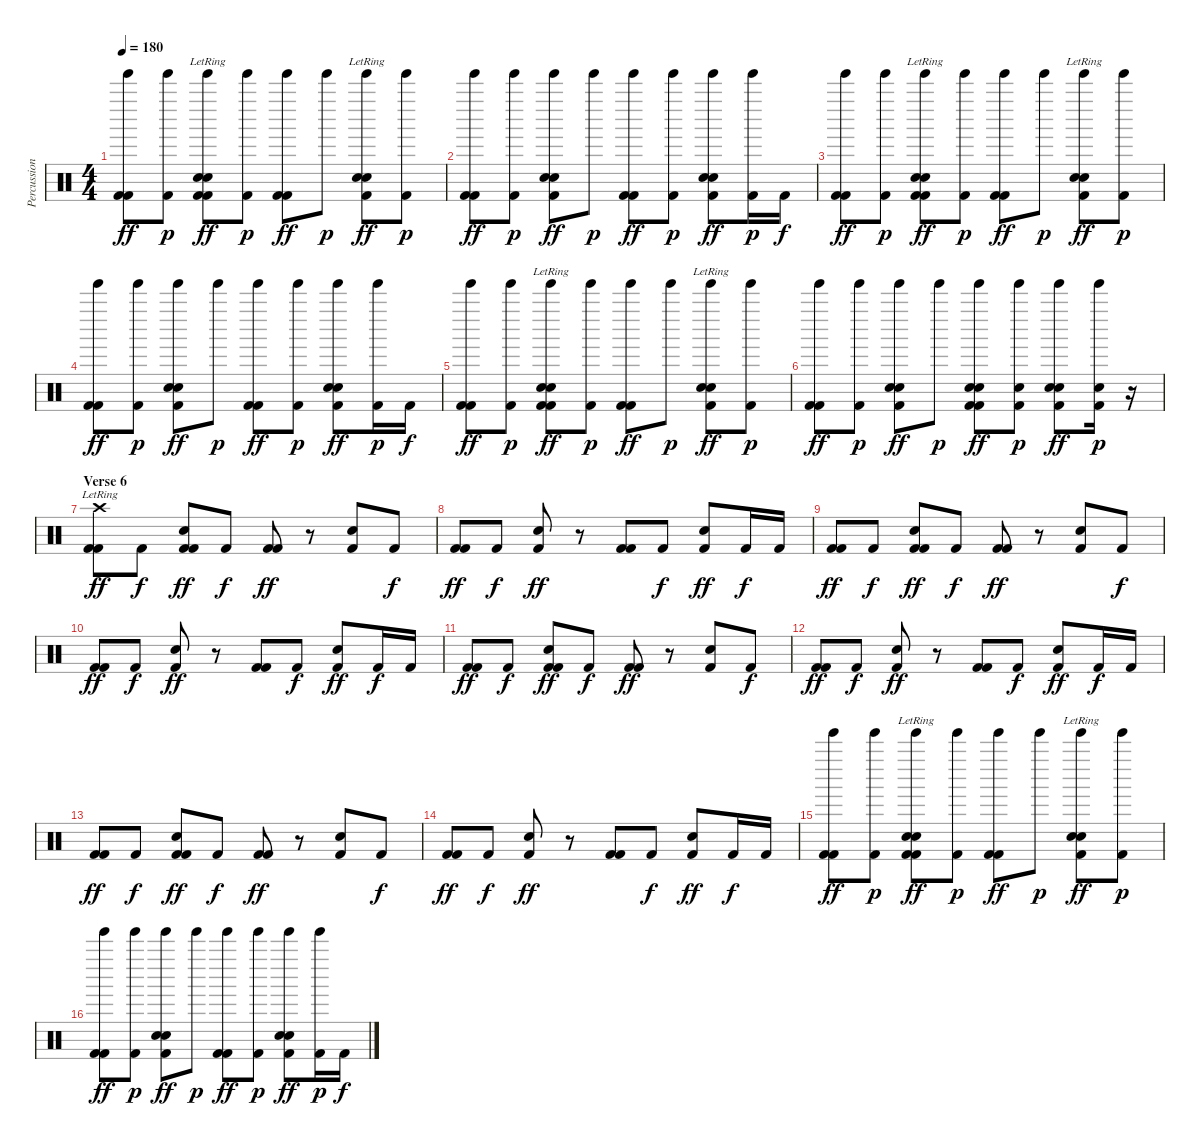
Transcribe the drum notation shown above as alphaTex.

\track ("Percussion" "Percussion") {instrument percussion}
\staff {score}
\articulation defaults
\ts (4 4)
\tempo 180
\clef neutral
\ks c
("Tinkle Bell (hit)" "Kick (hit) 2" "Kick (hit) 2").8{dy ff} ("Tinkle Bell (hit)" "Kick (hit) 2").8{dy p} ("Tinkle Bell (hit)" "Snare (hit) 2"{lr} "Electric Snare (hit)" "Kick (hit) 2" "Kick (hit) 2").8{dy ff} ("Tinkle Bell (hit)" "Kick (hit) 2").8{dy p} ("Tinkle Bell (hit)" "Kick (hit) 2" "Kick (hit) 2").8{dy ff} "Tinkle Bell (hit)".8{dy p} ("Tinkle Bell (hit)" "Snare (hit) 2"{lr} "Electric Snare (hit)" "Kick (hit) 2").8{dy ff} ("Tinkle Bell (hit)" "Kick (hit) 2").8{dy p} |
("Tinkle Bell (hit)" "Kick (hit) 2" "Kick (hit) 2").8{dy ff} ("Tinkle Bell (hit)" "Kick (hit) 2").8{dy p} ("Tinkle Bell (hit)" "Snare (hit) 2" "Electric Snare (hit)" "Kick (hit) 2").8{dy ff} "Tinkle Bell (hit)".8{dy p} ("Tinkle Bell (hit)" "Kick (hit) 2" "Kick (hit) 2").8{dy ff} ("Tinkle Bell (hit)" "Kick (hit) 2").8{dy p} ("Tinkle Bell (hit)" "Snare (hit) 2" "Electric Snare (hit)" "Kick (hit) 2").8{dy ff} ("Tinkle Bell (hit)" "Kick (hit) 2").16{dy p} "Kick (hit) 2".16{dy f} |
("Tinkle Bell (hit)" "Kick (hit) 2" "Kick (hit) 2").8{dy ff} ("Tinkle Bell (hit)" "Kick (hit) 2").8{dy p} ("Tinkle Bell (hit)" "Snare (hit) 2"{lr} "Electric Snare (hit)" "Kick (hit) 2" "Kick (hit) 2").8{dy ff} ("Tinkle Bell (hit)" "Kick (hit) 2").8{dy p} ("Tinkle Bell (hit)" "Kick (hit) 2" "Kick (hit) 2").8{dy ff} "Tinkle Bell (hit)".8{dy p} ("Tinkle Bell (hit)" "Snare (hit) 2"{lr} "Electric Snare (hit)" "Kick (hit) 2").8{dy ff} ("Tinkle Bell (hit)" "Kick (hit) 2").8{dy p} |
("Tinkle Bell (hit)" "Kick (hit) 2" "Kick (hit) 2").8{dy ff} ("Tinkle Bell (hit)" "Kick (hit) 2").8{dy p} ("Tinkle Bell (hit)" "Snare (hit) 2" "Electric Snare (hit)" "Kick (hit) 2").8{dy ff} "Tinkle Bell (hit)".8{dy p} ("Tinkle Bell (hit)" "Kick (hit) 2" "Kick (hit) 2").8{dy ff} ("Tinkle Bell (hit)" "Kick (hit) 2").8{dy p} ("Tinkle Bell (hit)" "Snare (hit) 2" "Electric Snare (hit)" "Kick (hit) 2").8{dy ff} ("Tinkle Bell (hit)" "Kick (hit) 2").16{dy p} "Kick (hit) 2".16{dy f} |
("Tinkle Bell (hit)" "Kick (hit) 2" "Kick (hit) 2").8{dy ff} ("Tinkle Bell (hit)" "Kick (hit) 2").8{dy p} ("Tinkle Bell (hit)" "Snare (hit) 2"{lr} "Electric Snare (hit)" "Kick (hit) 2" "Kick (hit) 2").8{dy ff} ("Tinkle Bell (hit)" "Kick (hit) 2").8{dy p} ("Tinkle Bell (hit)" "Kick (hit) 2" "Kick (hit) 2").8{dy ff} "Tinkle Bell (hit)".8{dy p} ("Tinkle Bell (hit)" "Snare (hit) 2"{lr} "Electric Snare (hit)" "Kick (hit) 2").8{dy ff} ("Tinkle Bell (hit)" "Kick (hit) 2").8{dy p} |
("Tinkle Bell (hit)" "Kick (hit) 2" "Kick (hit) 2").8{dy ff} ("Tinkle Bell (hit)" "Kick (hit) 2").8{dy p} ("Tinkle Bell (hit)" "Snare (hit) 2" "Electric Snare (hit)" "Kick (hit) 2").8{dy ff} "Tinkle Bell (hit)".8{dy p} ("Tinkle Bell (hit)" "Snare (hit) 2" "Electric Snare (hit)" "Kick (hit) 2" "Kick (hit) 2").8{dy ff} ("Tinkle Bell (hit)" "Electric Snare (hit)" "Kick (hit) 2").8{dy p} ("Tinkle Bell (hit)" "Snare (hit) 2" "Electric Snare (hit)" "Kick (hit) 2").8{dy ff} ("Tinkle Bell (hit)" "Electric Snare (hit)" "Kick (hit) 2").16{dy p} r.16 |
\section ("" "Verse 6")
("Crash high (hit)"{lr} "Kick (hit) 2" "Kick (hit) 2").8{dy ff} "Kick (hit) 2".8{dy f} ("Electric Snare (hit)" "Kick (hit) 2" "Kick (hit) 2").8{dy ff} "Kick (hit) 2".8{dy f} ("Kick (hit) 2" "Kick (hit) 2").8{dy ff} r.8 ("Electric Snare (hit)" "Kick (hit) 2").8 "Kick (hit) 2".8{dy f} |
("Kick (hit) 2" "Kick (hit) 2").8{dy ff} "Kick (hit) 2".8{dy f} ("Electric Snare (hit)" "Kick (hit) 2").8{dy ff} r.8 ("Kick (hit) 2" "Kick (hit) 2").8 "Kick (hit) 2".8{dy f} ("Electric Snare (hit)" "Kick (hit) 2").8{dy ff} "Kick (hit) 2".16{dy f} "Kick (hit) 2".16 |
("Kick (hit) 2" "Kick (hit) 2").8{dy ff} "Kick (hit) 2".8{dy f} ("Electric Snare (hit)" "Kick (hit) 2" "Kick (hit) 2").8{dy ff} "Kick (hit) 2".8{dy f} ("Kick (hit) 2" "Kick (hit) 2").8{dy ff} r.8 ("Electric Snare (hit)" "Kick (hit) 2").8 "Kick (hit) 2".8{dy f} |
("Kick (hit) 2" "Kick (hit) 2").8{dy ff} "Kick (hit) 2".8{dy f} ("Electric Snare (hit)" "Kick (hit) 2").8{dy ff} r.8 ("Kick (hit) 2" "Kick (hit) 2").8 "Kick (hit) 2".8{dy f} ("Electric Snare (hit)" "Kick (hit) 2").8{dy ff} "Kick (hit) 2".16{dy f} "Kick (hit) 2".16 |
("Kick (hit) 2" "Kick (hit) 2").8{dy ff} "Kick (hit) 2".8{dy f} ("Electric Snare (hit)" "Kick (hit) 2" "Kick (hit) 2").8{dy ff} "Kick (hit) 2".8{dy f} ("Kick (hit) 2" "Kick (hit) 2").8{dy ff} r.8 ("Electric Snare (hit)" "Kick (hit) 2").8 "Kick (hit) 2".8{dy f} |
("Kick (hit) 2" "Kick (hit) 2").8{dy ff} "Kick (hit) 2".8{dy f} ("Electric Snare (hit)" "Kick (hit) 2").8{dy ff} r.8 ("Kick (hit) 2" "Kick (hit) 2").8 "Kick (hit) 2".8{dy f} ("Electric Snare (hit)" "Kick (hit) 2").8{dy ff} "Kick (hit) 2".16{dy f} "Kick (hit) 2".16 |
("Kick (hit) 2" "Kick (hit) 2").8{dy ff} "Kick (hit) 2".8{dy f} ("Electric Snare (hit)" "Kick (hit) 2" "Kick (hit) 2").8{dy ff} "Kick (hit) 2".8{dy f} ("Kick (hit) 2" "Kick (hit) 2").8{dy ff} r.8 ("Electric Snare (hit)" "Kick (hit) 2").8 "Kick (hit) 2".8{dy f} |
("Kick (hit) 2" "Kick (hit) 2").8{dy ff} "Kick (hit) 2".8{dy f} ("Electric Snare (hit)" "Kick (hit) 2").8{dy ff} r.8 ("Kick (hit) 2" "Kick (hit) 2").8 "Kick (hit) 2".8{dy f} ("Electric Snare (hit)" "Kick (hit) 2").8{dy ff} "Kick (hit) 2".16{dy f} "Kick (hit) 2".16 |
("Tinkle Bell (hit)" "Kick (hit) 2" "Kick (hit) 2").8{dy ff} ("Tinkle Bell (hit)" "Kick (hit) 2").8{dy p} ("Tinkle Bell (hit)" "Snare (hit) 2"{lr} "Electric Snare (hit)" "Kick (hit) 2" "Kick (hit) 2").8{dy ff} ("Tinkle Bell (hit)" "Kick (hit) 2").8{dy p} ("Tinkle Bell (hit)" "Kick (hit) 2" "Kick (hit) 2").8{dy ff} "Tinkle Bell (hit)".8{dy p} ("Tinkle Bell (hit)" "Snare (hit) 2"{lr} "Electric Snare (hit)" "Kick (hit) 2").8{dy ff} ("Tinkle Bell (hit)" "Kick (hit) 2").8{dy p} |
("Tinkle Bell (hit)" "Kick (hit) 2" "Kick (hit) 2").8{dy ff} ("Tinkle Bell (hit)" "Kick (hit) 2").8{dy p} ("Tinkle Bell (hit)" "Snare (hit) 2" "Electric Snare (hit)" "Kick (hit) 2").8{dy ff} "Tinkle Bell (hit)".8{dy p} ("Tinkle Bell (hit)" "Kick (hit) 2" "Kick (hit) 2").8{dy ff} ("Tinkle Bell (hit)" "Kick (hit) 2").8{dy p} ("Tinkle Bell (hit)" "Snare (hit) 2" "Electric Snare (hit)" "Kick (hit) 2").8{dy ff} ("Tinkle Bell (hit)" "Kick (hit) 2").16{dy p} "Kick (hit) 2".16{dy f}
